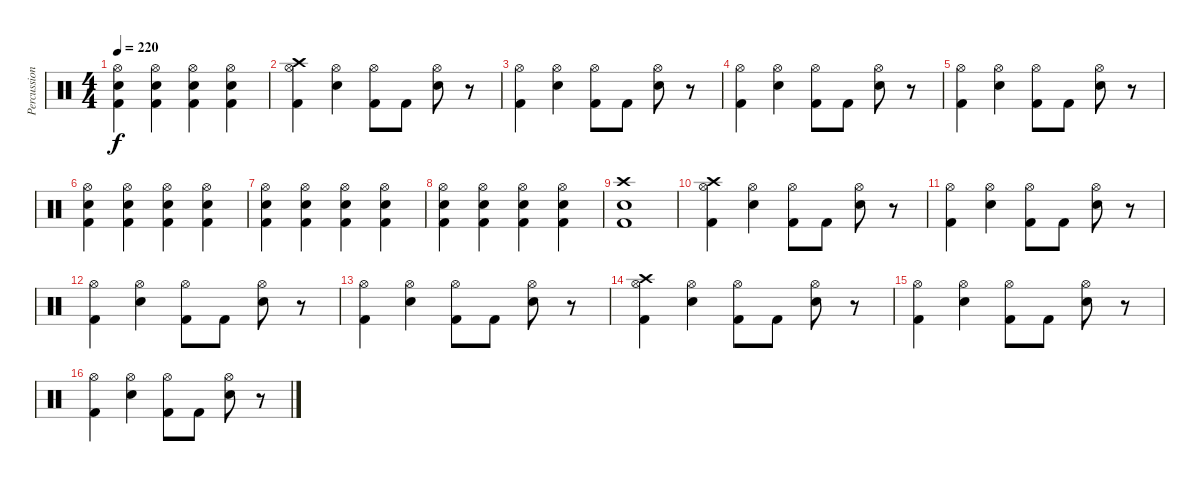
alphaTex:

\track ("Percussions" "Percussion") {instrument percussion}
\staff {score}
\articulation defaults
\ts (4 4)
\tempo 220
\clef neutral
\ks c
("Hi-Hat (open)" "Electric Snare (hit)" "Kick (hit) 2").4{dy f} ("Hi-Hat (open)" "Electric Snare (hit)" "Kick (hit) 2").4 ("Hi-Hat (open)" "Electric Snare (hit)" "Kick (hit) 2").4 ("Hi-Hat (open)" "Electric Snare (hit)" "Kick (hit) 2").4 |
("Crash high (hit)" "Hi-Hat (open)" "Kick (hit) 2").4 ("Hi-Hat (open)" "Electric Snare (hit)").4 ("Hi-Hat (open)" "Kick (hit) 2").8 "Kick (hit) 2".8 ("Hi-Hat (open)" "Electric Snare (hit)").8 r.8 |
("Hi-Hat (open)" "Kick (hit) 2").4 ("Hi-Hat (open)" "Electric Snare (hit)").4 ("Hi-Hat (open)" "Kick (hit) 2").8 "Kick (hit) 2".8 ("Hi-Hat (open)" "Electric Snare (hit)").8 r.8 |
("Hi-Hat (open)" "Kick (hit) 2").4 ("Hi-Hat (open)" "Electric Snare (hit)").4 ("Hi-Hat (open)" "Kick (hit) 2").8 "Kick (hit) 2".8 ("Hi-Hat (open)" "Electric Snare (hit)").8 r.8 |
("Hi-Hat (open)" "Kick (hit) 2").4 ("Hi-Hat (open)" "Electric Snare (hit)").4 ("Hi-Hat (open)" "Kick (hit) 2").8 "Kick (hit) 2".8 ("Hi-Hat (open)" "Electric Snare (hit)").8 r.8 |
("Hi-Hat (open)" "Electric Snare (hit)" "Kick (hit) 2").4 ("Hi-Hat (open)" "Electric Snare (hit)" "Kick (hit) 2").4 ("Hi-Hat (open)" "Electric Snare (hit)" "Kick (hit) 2").4 ("Hi-Hat (open)" "Electric Snare (hit)" "Kick (hit) 2").4 |
("Hi-Hat (open)" "Electric Snare (hit)" "Kick (hit) 2").4 ("Hi-Hat (open)" "Electric Snare (hit)" "Kick (hit) 2").4 ("Hi-Hat (open)" "Electric Snare (hit)" "Kick (hit) 2").4 ("Hi-Hat (open)" "Electric Snare (hit)" "Kick (hit) 2").4 |
("Hi-Hat (open)" "Electric Snare (hit)" "Kick (hit) 2").4 ("Hi-Hat (open)" "Electric Snare (hit)" "Kick (hit) 2").4 ("Hi-Hat (open)" "Electric Snare (hit)" "Kick (hit) 2").4 ("Hi-Hat (open)" "Electric Snare (hit)" "Kick (hit) 2").4 |
("Crash high (hit)" "Electric Snare (hit)" "Kick (hit) 2").1 |
("Crash high (hit)" "Hi-Hat (open)" "Kick (hit) 2").4 ("Hi-Hat (open)" "Electric Snare (hit)").4 ("Hi-Hat (open)" "Kick (hit) 2").8 "Kick (hit) 2".8 ("Hi-Hat (open)" "Electric Snare (hit)").8 r.8 |
("Hi-Hat (open)" "Kick (hit) 2").4 ("Hi-Hat (open)" "Electric Snare (hit)").4 ("Hi-Hat (open)" "Kick (hit) 2").8 "Kick (hit) 2".8 ("Hi-Hat (open)" "Electric Snare (hit)").8 r.8 |
("Hi-Hat (open)" "Kick (hit) 2").4 ("Hi-Hat (open)" "Electric Snare (hit)").4 ("Hi-Hat (open)" "Kick (hit) 2").8 "Kick (hit) 2".8 ("Hi-Hat (open)" "Electric Snare (hit)").8 r.8 |
("Hi-Hat (open)" "Kick (hit) 2").4 ("Hi-Hat (open)" "Electric Snare (hit)").4 ("Hi-Hat (open)" "Kick (hit) 2").8 "Kick (hit) 2".8 ("Hi-Hat (open)" "Electric Snare (hit)").8 r.8 |
("Crash high (hit)" "Hi-Hat (open)" "Kick (hit) 2").4 ("Hi-Hat (open)" "Electric Snare (hit)").4 ("Hi-Hat (open)" "Kick (hit) 2").8 "Kick (hit) 2".8 ("Hi-Hat (open)" "Electric Snare (hit)").8 r.8 |
("Hi-Hat (open)" "Kick (hit) 2").4 ("Hi-Hat (open)" "Electric Snare (hit)").4 ("Hi-Hat (open)" "Kick (hit) 2").8 "Kick (hit) 2".8 ("Hi-Hat (open)" "Electric Snare (hit)").8 r.8 |
("Hi-Hat (open)" "Kick (hit) 2").4 ("Hi-Hat (open)" "Electric Snare (hit)").4 ("Hi-Hat (open)" "Kick (hit) 2").8 "Kick (hit) 2".8 ("Hi-Hat (open)" "Electric Snare (hit)").8 r.8
